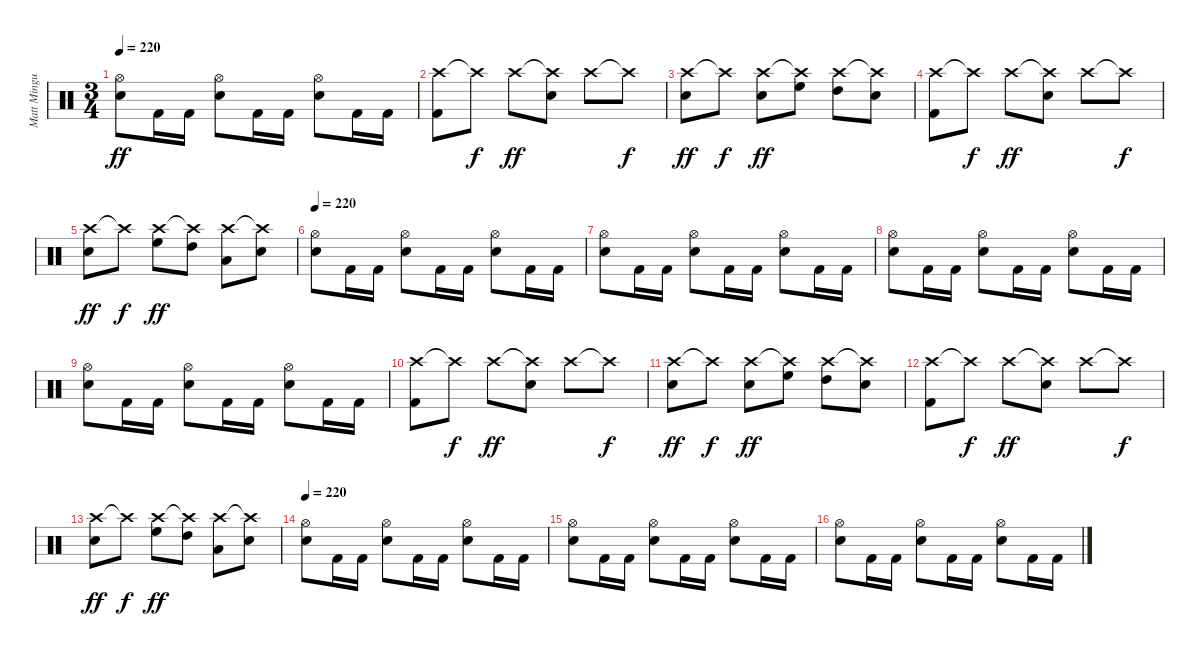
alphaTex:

\track ("Matt Mingus" "Matt Mingu") {instrument percussion}
\staff {score}
\articulation defaults
\ts (3 4)
\tempo 220
\clef neutral
\ks c
("Hi-Hat (open)" "Electric Snare (hit)").8{dy ff} "Kick (hit) 2".16 "Kick (hit) 2".16 ("Hi-Hat (open)" "Electric Snare (hit)").8 "Kick (hit) 2".16 "Kick (hit) 2".16 ("Hi-Hat (open)" "Electric Snare (hit)").8 "Kick (hit) 2".16 "Kick (hit) 2".16 |
("Crash high (hit)" "Kick (hit) 2").8 "Crash high (hit)"{t}.8{dy f} "Crash high (hit)".8{dy ff} ("Crash high (hit)"{t} "Electric Snare (hit)").8 "Crash high (hit)".8 "Crash high (hit)"{t}.8{dy f} |
("Crash high (hit)" "Electric Snare (hit)").8{dy ff} "Crash high (hit)"{t}.8{dy f} ("Crash high (hit)" "Electric Snare (hit)").8{dy ff} ("Crash high (hit)"{t} "High Floor Tom (hit)").8 ("Crash high (hit)" "High Tom (hit)").8 ("Crash high (hit)"{t} "Electric Snare (hit)").8 |
("Crash high (hit)" "Kick (hit) 2").8 "Crash high (hit)"{t}.8{dy f} "Crash high (hit)".8{dy ff} ("Crash high (hit)"{t} "Electric Snare (hit)").8 "Crash high (hit)".8 "Crash high (hit)"{t}.8{dy f} |
("Crash high (hit)" "Electric Snare (hit)").8{dy ff} "Crash high (hit)"{t}.8{dy f} ("Crash high (hit)" "High Floor Tom (hit)").8{dy ff} ("Crash high (hit)"{t} "High Tom (hit)").8 ("Crash high (hit)" "Low Floor Tom (hit)").8 ("Crash high (hit)"{t} "Electric Snare (hit)").8 |
\tempo 220
("Hi-Hat (open)" "Electric Snare (hit)").8 "Kick (hit) 2".16 "Kick (hit) 2".16 ("Hi-Hat (open)" "Electric Snare (hit)").8 "Kick (hit) 2".16 "Kick (hit) 2".16 ("Hi-Hat (open)" "Electric Snare (hit)").8 "Kick (hit) 2".16 "Kick (hit) 2".16 |
("Hi-Hat (open)" "Electric Snare (hit)").8 "Kick (hit) 2".16 "Kick (hit) 2".16 ("Hi-Hat (open)" "Electric Snare (hit)").8 "Kick (hit) 2".16 "Kick (hit) 2".16 ("Hi-Hat (open)" "Electric Snare (hit)").8 "Kick (hit) 2".16 "Kick (hit) 2".16 |
("Hi-Hat (open)" "Electric Snare (hit)").8 "Kick (hit) 2".16 "Kick (hit) 2".16 ("Hi-Hat (open)" "Electric Snare (hit)").8 "Kick (hit) 2".16 "Kick (hit) 2".16 ("Hi-Hat (open)" "Electric Snare (hit)").8 "Kick (hit) 2".16 "Kick (hit) 2".16 |
("Hi-Hat (open)" "Electric Snare (hit)").8 "Kick (hit) 2".16 "Kick (hit) 2".16 ("Hi-Hat (open)" "Electric Snare (hit)").8 "Kick (hit) 2".16 "Kick (hit) 2".16 ("Hi-Hat (open)" "Electric Snare (hit)").8 "Kick (hit) 2".16 "Kick (hit) 2".16 |
("Crash high (hit)" "Kick (hit) 2").8 "Crash high (hit)"{t}.8{dy f} "Crash high (hit)".8{dy ff} ("Crash high (hit)"{t} "Electric Snare (hit)").8 "Crash high (hit)".8 "Crash high (hit)"{t}.8{dy f} |
("Crash high (hit)" "Electric Snare (hit)").8{dy ff} "Crash high (hit)"{t}.8{dy f} ("Crash high (hit)" "Electric Snare (hit)").8{dy ff} ("Crash high (hit)"{t} "High Floor Tom (hit)").8 ("Crash high (hit)" "High Tom (hit)").8 ("Crash high (hit)"{t} "Electric Snare (hit)").8 |
("Crash high (hit)" "Kick (hit) 2").8 "Crash high (hit)"{t}.8{dy f} "Crash high (hit)".8{dy ff} ("Crash high (hit)"{t} "Electric Snare (hit)").8 "Crash high (hit)".8 "Crash high (hit)"{t}.8{dy f} |
("Crash high (hit)" "Electric Snare (hit)").8{dy ff} "Crash high (hit)"{t}.8{dy f} ("Crash high (hit)" "High Floor Tom (hit)").8{dy ff} ("Crash high (hit)"{t} "High Tom (hit)").8 ("Crash high (hit)" "Low Floor Tom (hit)").8 ("Crash high (hit)"{t} "Electric Snare (hit)").8 |
\tempo 220
("Hi-Hat (open)" "Electric Snare (hit)").8 "Kick (hit) 2".16 "Kick (hit) 2".16 ("Hi-Hat (open)" "Electric Snare (hit)").8 "Kick (hit) 2".16 "Kick (hit) 2".16 ("Hi-Hat (open)" "Electric Snare (hit)").8 "Kick (hit) 2".16 "Kick (hit) 2".16 |
("Hi-Hat (open)" "Electric Snare (hit)").8 "Kick (hit) 2".16 "Kick (hit) 2".16 ("Hi-Hat (open)" "Electric Snare (hit)").8 "Kick (hit) 2".16 "Kick (hit) 2".16 ("Hi-Hat (open)" "Electric Snare (hit)").8 "Kick (hit) 2".16 "Kick (hit) 2".16 |
("Hi-Hat (open)" "Electric Snare (hit)").8 "Kick (hit) 2".16 "Kick (hit) 2".16 ("Hi-Hat (open)" "Electric Snare (hit)").8 "Kick (hit) 2".16 "Kick (hit) 2".16 ("Hi-Hat (open)" "Electric Snare (hit)").8 "Kick (hit) 2".16 "Kick (hit) 2".16
